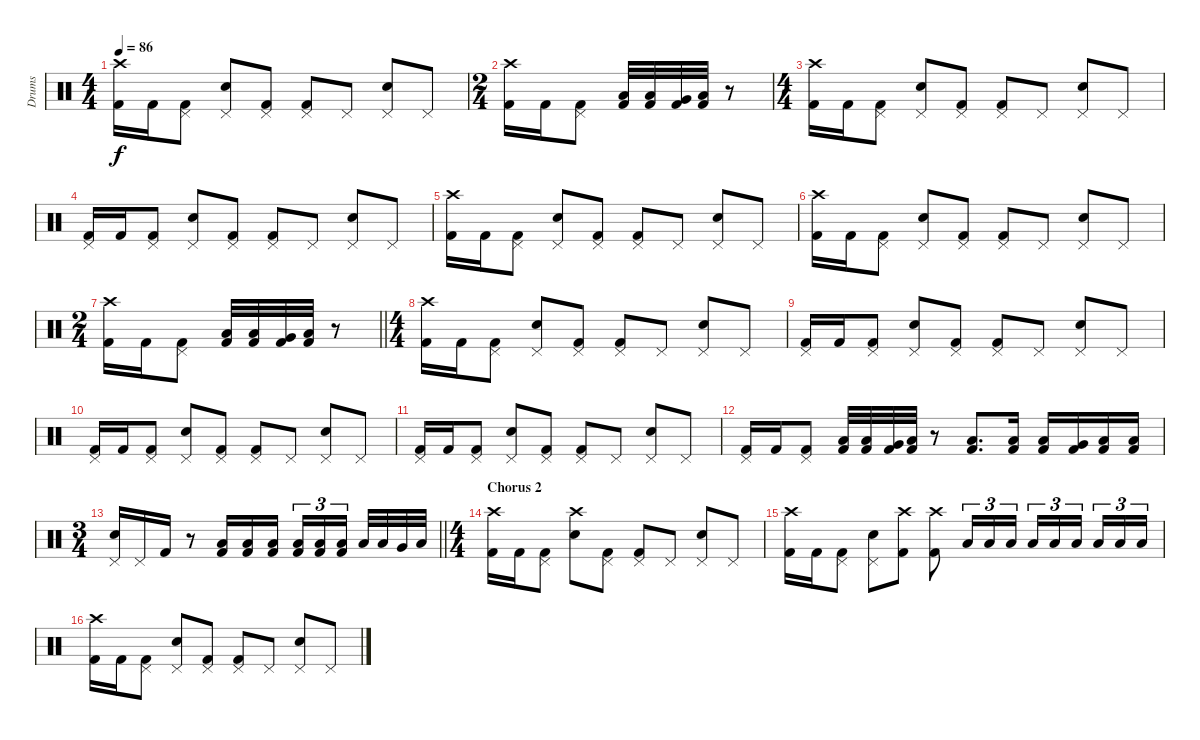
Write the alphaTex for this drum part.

\track ("Drums" "Drums") {instrument percussion}
\staff {score}
\articulation defaults
\ts (4 4)
\tempo 86
\clef neutral
\ks c
("Crash high (hit)" "Kick (hit) 2").16{dy f} "Kick (hit) 2".16 ("Pedal Hi-Hat (hit)" "Kick (hit) 2").8 ("Pedal Hi-Hat (hit)" "Snare (hit) 2").8 ("Pedal Hi-Hat (hit)" "Kick (hit) 2").8 ("Pedal Hi-Hat (hit)" "Kick (hit) 2").8 "Pedal Hi-Hat (hit)".8 ("Pedal Hi-Hat (hit)" "Snare (hit) 2").8 "Pedal Hi-Hat (hit)".8 |
\ts (2 4)
("Crash high (hit)" "Kick (hit) 2").16 "Kick (hit) 2".16 ("Pedal Hi-Hat (hit)" "Kick (hit) 2").8 ("Low Tom (hit)" "Kick (hit) 2").32 ("Low Tom (hit)" "Kick (hit) 2").32 ("Very Low Tom (hit)" "Kick (hit) 2").32 ("Low Floor Tom (hit)" "Kick (hit) 2").32 r.8 |
\ts (4 4)
("Crash high (hit)" "Kick (hit) 2").16 "Kick (hit) 2".16 ("Pedal Hi-Hat (hit)" "Kick (hit) 2").8 ("Pedal Hi-Hat (hit)" "Snare (hit) 2").8 ("Pedal Hi-Hat (hit)" "Kick (hit) 2").8 ("Pedal Hi-Hat (hit)" "Kick (hit) 2").8 "Pedal Hi-Hat (hit)".8 ("Pedal Hi-Hat (hit)" "Snare (hit) 2").8 "Pedal Hi-Hat (hit)".8 |
("Pedal Hi-Hat (hit)" "Kick (hit) 2").16 "Kick (hit) 2".16 ("Pedal Hi-Hat (hit)" "Kick (hit) 2").8 ("Pedal Hi-Hat (hit)" "Snare (hit) 2").8 ("Pedal Hi-Hat (hit)" "Kick (hit) 2").8 ("Pedal Hi-Hat (hit)" "Kick (hit) 2").8 "Pedal Hi-Hat (hit)".8 ("Pedal Hi-Hat (hit)" "Snare (hit) 2").8 "Pedal Hi-Hat (hit)".8 |
("Crash high (hit)" "Kick (hit) 2").16 "Kick (hit) 2".16 ("Pedal Hi-Hat (hit)" "Kick (hit) 2").8 ("Pedal Hi-Hat (hit)" "Snare (hit) 2").8 ("Pedal Hi-Hat (hit)" "Kick (hit) 2").8 ("Pedal Hi-Hat (hit)" "Kick (hit) 2").8 "Pedal Hi-Hat (hit)".8 ("Pedal Hi-Hat (hit)" "Snare (hit) 2").8 "Pedal Hi-Hat (hit)".8 |
("Crash high (hit)" "Kick (hit) 2").16 "Kick (hit) 2".16 ("Pedal Hi-Hat (hit)" "Kick (hit) 2").8 ("Pedal Hi-Hat (hit)" "Snare (hit) 2").8 ("Pedal Hi-Hat (hit)" "Kick (hit) 2").8 ("Pedal Hi-Hat (hit)" "Kick (hit) 2").8 "Pedal Hi-Hat (hit)".8 ("Pedal Hi-Hat (hit)" "Snare (hit) 2").8 "Pedal Hi-Hat (hit)".8 |
\ts (2 4)
\barLineRight lightlight
("Crash high (hit)" "Kick (hit) 2").16 "Kick (hit) 2".16 ("Pedal Hi-Hat (hit)" "Kick (hit) 2").8 ("Low Tom (hit)" "Kick (hit) 2").32 ("Low Tom (hit)" "Kick (hit) 2").32 ("Very Low Tom (hit)" "Kick (hit) 2").32 ("Low Floor Tom (hit)" "Kick (hit) 2").32 r.8 |
\ts (4 4)
("Crash high (hit)" "Kick (hit) 2").16 "Kick (hit) 2".16 ("Pedal Hi-Hat (hit)" "Kick (hit) 2").8 ("Pedal Hi-Hat (hit)" "Snare (hit) 2").8 ("Pedal Hi-Hat (hit)" "Kick (hit) 2").8 ("Pedal Hi-Hat (hit)" "Kick (hit) 2").8 "Pedal Hi-Hat (hit)".8 ("Pedal Hi-Hat (hit)" "Snare (hit) 2").8 "Pedal Hi-Hat (hit)".8 |
("Pedal Hi-Hat (hit)" "Kick (hit) 2").16 "Kick (hit) 2".16 ("Pedal Hi-Hat (hit)" "Kick (hit) 2").8 ("Pedal Hi-Hat (hit)" "Snare (hit) 2").8 ("Pedal Hi-Hat (hit)" "Kick (hit) 2").8 ("Pedal Hi-Hat (hit)" "Kick (hit) 2").8 "Pedal Hi-Hat (hit)".8 ("Pedal Hi-Hat (hit)" "Snare (hit) 2").8 "Pedal Hi-Hat (hit)".8 |
("Pedal Hi-Hat (hit)" "Kick (hit) 2").16 "Kick (hit) 2".16 ("Pedal Hi-Hat (hit)" "Kick (hit) 2").8 ("Pedal Hi-Hat (hit)" "Snare (hit) 2").8 ("Pedal Hi-Hat (hit)" "Kick (hit) 2").8 ("Pedal Hi-Hat (hit)" "Kick (hit) 2").8 "Pedal Hi-Hat (hit)".8 ("Pedal Hi-Hat (hit)" "Snare (hit) 2").8 "Pedal Hi-Hat (hit)".8 |
("Pedal Hi-Hat (hit)" "Kick (hit) 2").16 "Kick (hit) 2".16 ("Pedal Hi-Hat (hit)" "Kick (hit) 2").8 ("Pedal Hi-Hat (hit)" "Snare (hit) 2").8 ("Pedal Hi-Hat (hit)" "Kick (hit) 2").8 ("Pedal Hi-Hat (hit)" "Kick (hit) 2").8 "Pedal Hi-Hat (hit)".8 ("Pedal Hi-Hat (hit)" "Snare (hit) 2").8 "Pedal Hi-Hat (hit)".8 |
("Pedal Hi-Hat (hit)" "Kick (hit) 2").16 "Kick (hit) 2".16 ("Pedal Hi-Hat (hit)" "Kick (hit) 2").8 ("Low Tom (hit)" "Kick (hit) 2").32 ("Low Tom (hit)" "Kick (hit) 2").32 ("Very Low Tom (hit)" "Kick (hit) 2").32 ("Low Floor Tom (hit)" "Kick (hit) 2").32 r.8 ("Low Tom (hit)" "Kick (hit) 2").8{d} ("Low Tom (hit)" "Kick (hit) 2").16 ("Low Tom (hit)" "Kick (hit) 2").16 ("Very Low Tom (hit)" "Kick (hit) 2").16 ("Low Floor Tom (hit)" "Kick (hit) 2").16 ("Low Floor Tom (hit)" "Kick (hit) 2").16 |
\ts (3 4)
\barLineRight lightlight
("Pedal Hi-Hat (hit)" "Snare (hit) 2").16 "Pedal Hi-Hat (hit)".16 "Kick (hit) 2".16 r.8 ("Low Tom (hit)" "Kick (hit) 2").16 ("Low Tom (hit)" "Kick (hit) 2").16 ("Low Tom (hit)" "Kick (hit) 2").16 ("Low Tom (hit)" "Kick (hit) 2").16{tu (3 2)} ("Low Tom (hit)" "Kick (hit) 2").16{tu (3 2)} ("Low Tom (hit)" "Kick (hit) 2").16{tu (3 2) beam splitsecondary} "Low Tom (hit)".32 "Low Tom (hit)".32 "Very Low Tom (hit)".32 "Low Floor Tom (hit)".32 |
\ts (4 4)
\section ("" "Chorus 2")
("Crash high (hit)" "Kick (hit) 2").16 "Kick (hit) 2".16 ("Pedal Hi-Hat (hit)" "Kick (hit) 2").8 ("Crash high (hit)" "Snare (hit) 2").8 ("Pedal Hi-Hat (hit)" "Kick (hit) 2").8 ("Pedal Hi-Hat (hit)" "Kick (hit) 2").8 "Pedal Hi-Hat (hit)".8 ("Pedal Hi-Hat (hit)" "Snare (hit) 2").8 "Pedal Hi-Hat (hit)".8 |
("Crash high (hit)" "Kick (hit) 2").16 "Kick (hit) 2".16 ("Pedal Hi-Hat (hit)" "Kick (hit) 2").8 ("Pedal Hi-Hat (hit)" "Snare (hit) 2").8 ("Crash high (hit)" "Kick (hit) 2").8 ("Crash high (hit)" "Kick (hit) 2").8 "Low Tom (hit)".16{tu (3 2)} "Low Tom (hit)".16{tu (3 2)} "Low Tom (hit)".16{tu (3 2)} "Low Tom (hit)".16{tu (3 2)} "Low Tom (hit)".16{tu (3 2)} "Low Tom (hit)".16{tu (3 2) beam splitsecondary} "Low Tom (hit)".16{tu (3 2)} "Low Tom (hit)".16{tu (3 2)} "Low Tom (hit)".16{tu (3 2)} |
("Crash high (hit)" "Kick (hit) 2").16 "Kick (hit) 2".16 ("Pedal Hi-Hat (hit)" "Kick (hit) 2").8 ("Pedal Hi-Hat (hit)" "Snare (hit) 2").8 ("Pedal Hi-Hat (hit)" "Kick (hit) 2").8 ("Pedal Hi-Hat (hit)" "Kick (hit) 2").8 "Pedal Hi-Hat (hit)".8 ("Pedal Hi-Hat (hit)" "Snare (hit) 2").8 "Pedal Hi-Hat (hit)".8
